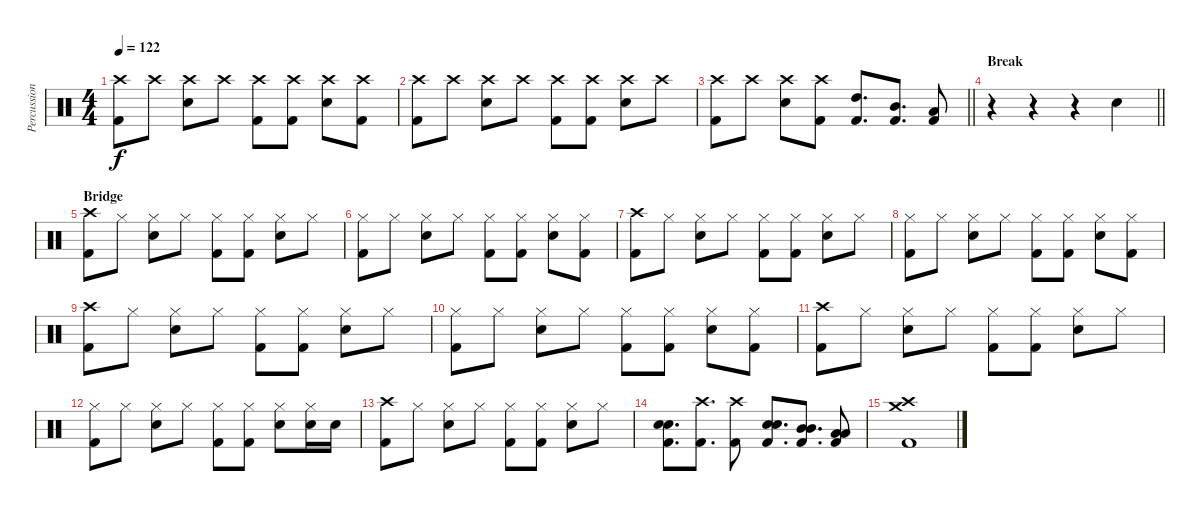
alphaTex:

\track ("Percussion" "Percussion") {instrument percussion}
\staff {score}
\articulation defaults
\ts (4 4)
\tempo 122
\clef neutral
\ks c
("Crash high (hit)" "Kick (hit) 2").8{dy f} "Crash high (hit)".8 ("Crash high (hit)" "Electric Snare (hit)").8 "Crash high (hit)".8 ("Crash high (hit)" "Kick (hit) 2").8 ("Crash high (hit)" "Kick (hit) 2").8 ("Crash high (hit)" "Electric Snare (hit)").8 ("Crash high (hit)" "Kick (hit) 2").8 |
("Crash high (hit)" "Kick (hit) 2").8 "Crash high (hit)".8 ("Crash high (hit)" "Electric Snare (hit)").8 "Crash high (hit)".8 ("Crash high (hit)" "Kick (hit) 2").8 ("Crash high (hit)" "Kick (hit) 2").8 ("Crash high (hit)" "Electric Snare (hit)").8 "Crash high (hit)".8 |
\barLineRight lightlight
("Crash high (hit)" "Kick (hit) 2").8 "Crash high (hit)".8 ("Crash high (hit)" "Electric Snare (hit)").8 ("Crash high (hit)" "Kick (hit) 2").8 ("High Tom (hit)" "Kick (hit) 2").8{d} ("Mid Tom (hit)" "Kick (hit) 2").8{d} ("Low Tom (hit)" "Kick (hit) 2").8 |
\section ("" "Break")
\barLineRight lightlight
r.4 r.4 r.4 "Electric Snare (hit)".4 |
\section ("" "Bridge")
("Crash high (hit)" "Kick (hit) 2").8 "Hi-Hat (closed)".8 ("Hi-Hat (closed)" "Electric Snare (hit)").8 "Hi-Hat (closed)".8 ("Hi-Hat (closed)" "Kick (hit) 2").8 ("Hi-Hat (closed)" "Kick (hit) 2").8 ("Hi-Hat (closed)" "Electric Snare (hit)").8 "Hi-Hat (closed)".8 |
("Hi-Hat (closed)" "Kick (hit) 2").8 "Hi-Hat (closed)".8 ("Hi-Hat (closed)" "Electric Snare (hit)").8 "Hi-Hat (closed)".8 ("Hi-Hat (closed)" "Kick (hit) 2").8 ("Hi-Hat (closed)" "Kick (hit) 2").8 ("Hi-Hat (closed)" "Electric Snare (hit)").8 ("Hi-Hat (closed)" "Kick (hit) 2").8 |
("Crash high (hit)" "Kick (hit) 2").8 "Hi-Hat (closed)".8 ("Hi-Hat (closed)" "Electric Snare (hit)").8 "Hi-Hat (closed)".8 ("Hi-Hat (closed)" "Kick (hit) 2").8 ("Hi-Hat (closed)" "Kick (hit) 2").8 ("Hi-Hat (closed)" "Electric Snare (hit)").8 "Hi-Hat (closed)".8 |
("Hi-Hat (closed)" "Kick (hit) 2").8 "Hi-Hat (closed)".8 ("Hi-Hat (closed)" "Electric Snare (hit)").8 "Hi-Hat (closed)".8 ("Hi-Hat (closed)" "Kick (hit) 2").8 ("Hi-Hat (closed)" "Kick (hit) 2").8 ("Hi-Hat (closed)" "Electric Snare (hit)").8 ("Hi-Hat (closed)" "Kick (hit) 2").8 |
("Crash high (hit)" "Kick (hit) 2").8 "Hi-Hat (closed)".8 ("Hi-Hat (closed)" "Electric Snare (hit)").8 "Hi-Hat (closed)".8 ("Hi-Hat (closed)" "Kick (hit) 2").8 ("Hi-Hat (closed)" "Kick (hit) 2").8 ("Hi-Hat (closed)" "Electric Snare (hit)").8 "Hi-Hat (closed)".8 |
("Hi-Hat (closed)" "Kick (hit) 2").8 "Hi-Hat (closed)".8 ("Hi-Hat (closed)" "Electric Snare (hit)").8 "Hi-Hat (closed)".8 ("Hi-Hat (closed)" "Kick (hit) 2").8 ("Hi-Hat (closed)" "Kick (hit) 2").8 ("Hi-Hat (closed)" "Electric Snare (hit)").8 ("Hi-Hat (closed)" "Kick (hit) 2").8 |
("Crash high (hit)" "Kick (hit) 2").8 "Hi-Hat (closed)".8 ("Hi-Hat (closed)" "Electric Snare (hit)").8 "Hi-Hat (closed)".8 ("Hi-Hat (closed)" "Kick (hit) 2").8 ("Hi-Hat (closed)" "Kick (hit) 2").8 ("Hi-Hat (closed)" "Electric Snare (hit)").8 "Hi-Hat (closed)".8 |
("Hi-Hat (closed)" "Kick (hit) 2").8 "Hi-Hat (closed)".8 ("Hi-Hat (closed)" "Electric Snare (hit)").8 "Hi-Hat (closed)".8 ("Hi-Hat (closed)" "Kick (hit) 2").8 ("Hi-Hat (closed)" "Kick (hit) 2").8 ("Hi-Hat (closed)" "Electric Snare (hit)").8 ("Hi-Hat (closed)" "Electric Snare (hit)").16 "Electric Snare (hit)".16 |
("Crash high (hit)" "Kick (hit) 2").8 "Hi-Hat (closed)".8 ("Hi-Hat (closed)" "Electric Snare (hit)").8 "Hi-Hat (closed)".8 ("Hi-Hat (closed)" "Kick (hit) 2").8 ("Hi-Hat (closed)" "Kick (hit) 2").8 ("Hi-Hat (closed)" "Electric Snare (hit)").8 "Hi-Hat (closed)".8 |
("Electric Snare (hit)" "Electric Snare (hit)" "Kick (hit) 2").8{d} ("Crash high (hit)" "Kick (hit) 2").8{d} ("Crash high (hit)" "Kick (hit) 2").8 ("Electric Snare (hit)" "Electric Snare (hit)" "Kick (hit) 2").8{d} ("Mid Tom (hit)" "Mid Tom (hit)" "Kick (hit) 2").8{d} ("Low Tom (hit)" "Low Tom (hit)" "Kick (hit) 2").8 |
("Crash high (hit)" "Crash medium (hit)" "Kick (hit) 2").1
